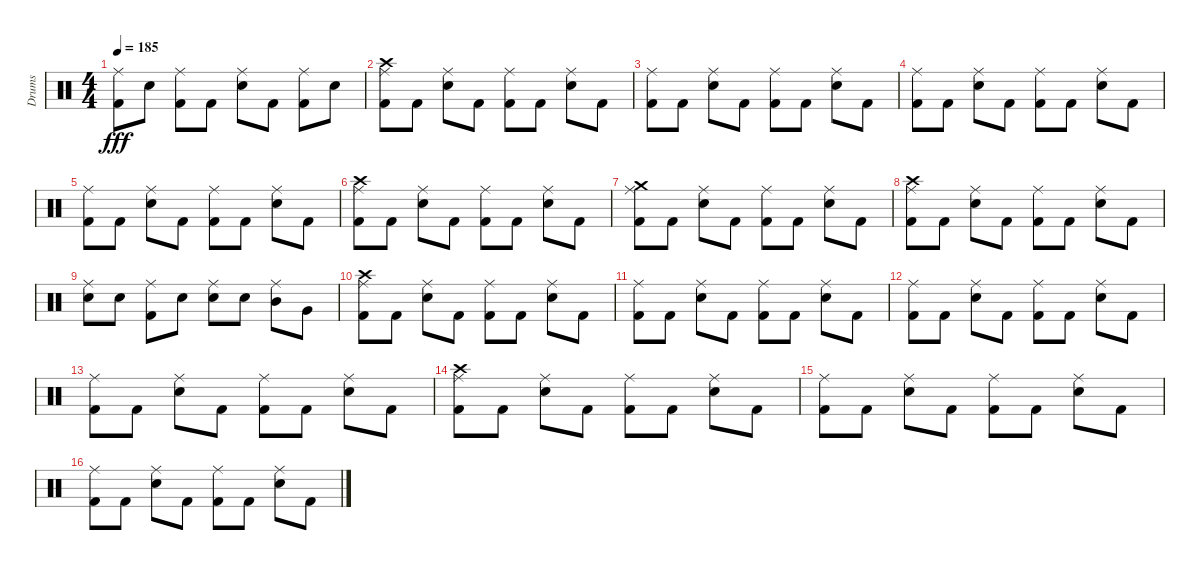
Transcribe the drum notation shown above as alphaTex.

\track ("Drums" "Drums") {instrument percussion}
\staff {score}
\articulation defaults
\ts (4 4)
\tempo 185
\clef neutral
\ks c
("Kick (hit) 2" "Ride (middle)").8{dy fff} "Snare (hit) 2".8 ("Kick (hit) 2" "Ride (middle)").8 "Kick (hit) 2".8 ("Snare (hit) 2" "Ride (middle)").8 "Kick (hit) 2".8 ("Kick (hit) 2" "Ride (middle)").8 "Snare (hit) 2".8 |
("Kick (hit) 2" "Crash high (hit)" "Ride (middle)").8 "Kick (hit) 2".8 ("Snare (hit) 2" "Ride (middle)").8 "Kick (hit) 2".8 ("Kick (hit) 2" "Ride (middle)").8 "Kick (hit) 2".8 ("Snare (hit) 2" "Ride (middle)").8 "Kick (hit) 2".8 |
("Kick (hit) 2" "Ride (middle)").8 "Kick (hit) 2".8 ("Snare (hit) 2" "Ride (middle)").8 "Kick (hit) 2".8 ("Kick (hit) 2" "Ride (middle)").8 "Kick (hit) 2".8 ("Snare (hit) 2" "Ride (middle)").8 "Kick (hit) 2".8 |
("Kick (hit) 2" "Ride (middle)").8 "Kick (hit) 2".8 ("Snare (hit) 2" "Ride (middle)").8 "Kick (hit) 2".8 ("Kick (hit) 2" "Ride (middle)").8 "Kick (hit) 2".8 ("Snare (hit) 2" "Ride (middle)").8 "Kick (hit) 2".8 |
("Kick (hit) 2" "Ride (middle)").8 "Kick (hit) 2".8 ("Snare (hit) 2" "Ride (middle)").8 "Kick (hit) 2".8 ("Kick (hit) 2" "Ride (middle)").8 "Kick (hit) 2".8 ("Snare (hit) 2" "Ride (middle)").8 "Kick (hit) 2".8 |
("Kick (hit) 2" "Crash high (hit)" "Ride (middle)").8 "Kick (hit) 2".8 ("Snare (hit) 2" "Ride (middle)").8 "Kick (hit) 2".8 ("Kick (hit) 2" "Ride (middle)").8 "Kick (hit) 2".8 ("Snare (hit) 2" "Ride (middle)").8 "Kick (hit) 2".8 |
("Kick (hit) 2" "Crash medium (hit)" "Ride (middle)").8 "Kick (hit) 2".8 ("Snare (hit) 2" "Ride (middle)").8 "Kick (hit) 2".8 ("Kick (hit) 2" "Ride (middle)").8 "Kick (hit) 2".8 ("Snare (hit) 2" "Ride (middle)").8 "Kick (hit) 2".8 |
("Kick (hit) 2" "Crash high (hit)" "Ride (middle)").8 "Kick (hit) 2".8 ("Snare (hit) 2" "Ride (middle)").8 "Kick (hit) 2".8 ("Kick (hit) 2" "Ride (middle)").8 "Kick (hit) 2".8 ("Snare (hit) 2" "Ride (middle)").8 "Kick (hit) 2".8 |
("Snare (hit) 2" "Ride (middle)").8 "Snare (hit) 2".8 ("Kick (hit) 2" "Ride (middle)").8 "Snare (hit) 2".8 ("Snare (hit) 2" "Ride (middle)").8 "Snare (hit) 2".8 ("Mid Tom (hit)" "Ride (middle)").8 "Very Low Tom (hit)".8 |
("Kick (hit) 2" "Crash high (hit)" "Ride (middle)").8 "Kick (hit) 2".8 ("Snare (hit) 2" "Ride (middle)").8 "Kick (hit) 2".8 ("Kick (hit) 2" "Ride (middle)").8 "Kick (hit) 2".8 ("Snare (hit) 2" "Ride (middle)").8 "Kick (hit) 2".8 |
("Kick (hit) 2" "Ride (middle)").8 "Kick (hit) 2".8 ("Snare (hit) 2" "Ride (middle)").8 "Kick (hit) 2".8 ("Kick (hit) 2" "Ride (middle)").8 "Kick (hit) 2".8 ("Snare (hit) 2" "Ride (middle)").8 "Kick (hit) 2".8 |
("Kick (hit) 2" "Ride (middle)").8 "Kick (hit) 2".8 ("Snare (hit) 2" "Ride (middle)").8 "Kick (hit) 2".8 ("Kick (hit) 2" "Ride (middle)").8 "Kick (hit) 2".8 ("Snare (hit) 2" "Ride (middle)").8 "Kick (hit) 2".8 |
("Kick (hit) 2" "Ride (middle)").8 "Kick (hit) 2".8 ("Snare (hit) 2" "Ride (middle)").8 "Kick (hit) 2".8 ("Kick (hit) 2" "Ride (middle)").8 "Kick (hit) 2".8 ("Snare (hit) 2" "Ride (middle)").8 "Kick (hit) 2".8 |
("Kick (hit) 2" "Crash high (hit)" "Ride (middle)").8 "Kick (hit) 2".8 ("Snare (hit) 2" "Ride (middle)").8 "Kick (hit) 2".8 ("Kick (hit) 2" "Ride (middle)").8 "Kick (hit) 2".8 ("Snare (hit) 2" "Ride (middle)").8 "Kick (hit) 2".8 |
("Kick (hit) 2" "Ride (middle)").8 "Kick (hit) 2".8 ("Snare (hit) 2" "Ride (middle)").8 "Kick (hit) 2".8 ("Kick (hit) 2" "Ride (middle)").8 "Kick (hit) 2".8 ("Snare (hit) 2" "Ride (middle)").8 "Kick (hit) 2".8 |
("Kick (hit) 2" "Ride (middle)").8 "Kick (hit) 2".8 ("Snare (hit) 2" "Ride (middle)").8 "Kick (hit) 2".8 ("Kick (hit) 2" "Ride (middle)").8 "Kick (hit) 2".8 ("Snare (hit) 2" "Ride (middle)").8 "Kick (hit) 2".8
